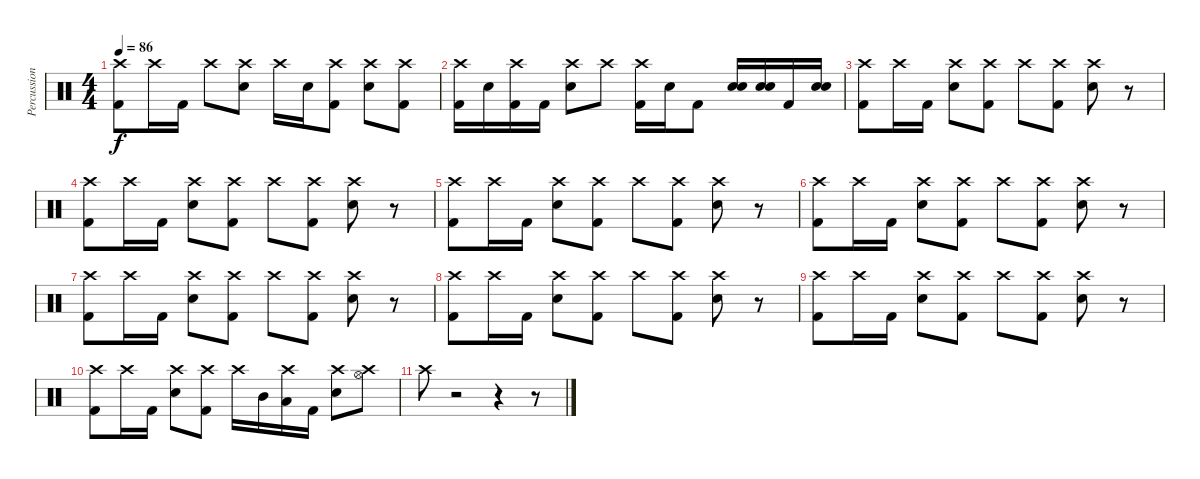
\track ("Percussions" "Percussion") {instrument percussion}
\staff {score}
\articulation defaults
\ts (4 4)
\tempo 86
\clef neutral
\ks c
("Crash high (hit)" "Kick (hit) 2").8{dy f} "Crash high (hit)".16 "Kick (hit) 2".16 "Crash high (hit)".8 ("Crash high (hit)" "Electric Snare (hit)").8 "Crash high (hit)".16 "Electric Snare (hit)".16 ("Crash high (hit)" "Kick (hit) 2").8 ("Crash high (hit)" "Electric Snare (hit)").8 ("Crash high (hit)" "Kick (hit) 2").8 |
("Crash high (hit)" "Kick (hit) 2").16 "Electric Snare (hit)".16 ("Crash high (hit)" "Kick (hit) 2").16 "Kick (hit) 2".16 ("Crash high (hit)" "Electric Snare (hit)").8 "Crash high (hit)".8 ("Crash high (hit)" "Kick (hit) 2").16 "Electric Snare (hit)".16 "Kick (hit) 2".8 ("Electric Snare (hit)" "Electric Snare (hit)").16 ("Electric Snare (hit)" "Electric Snare (hit)").16 "Kick (hit) 2".16 ("Electric Snare (hit)" "Electric Snare (hit)").16 |
("Crash high (hit)" "Kick (hit) 2").8 "Crash high (hit)".16 "Kick (hit) 2".16 ("Crash high (hit)" "Electric Snare (hit)").8 ("Crash high (hit)" "Kick (hit) 2").8 "Crash high (hit)".8 ("Crash high (hit)" "Kick (hit) 2").8 ("Crash high (hit)" "Electric Snare (hit)").8 r.8 |
("Crash high (hit)" "Kick (hit) 2").8 "Crash high (hit)".16 "Kick (hit) 2".16 ("Crash high (hit)" "Electric Snare (hit)").8 ("Crash high (hit)" "Kick (hit) 2").8 "Crash high (hit)".8 ("Crash high (hit)" "Kick (hit) 2").8 ("Crash high (hit)" "Electric Snare (hit)").8 r.8 |
("Crash high (hit)" "Kick (hit) 2").8 "Crash high (hit)".16 "Kick (hit) 2".16 ("Crash high (hit)" "Electric Snare (hit)").8 ("Crash high (hit)" "Kick (hit) 2").8 "Crash high (hit)".8 ("Crash high (hit)" "Kick (hit) 2").8 ("Crash high (hit)" "Electric Snare (hit)").8 r.8 |
("Crash high (hit)" "Kick (hit) 2").8 "Crash high (hit)".16 "Kick (hit) 2".16 ("Crash high (hit)" "Electric Snare (hit)").8 ("Crash high (hit)" "Kick (hit) 2").8 "Crash high (hit)".8 ("Crash high (hit)" "Kick (hit) 2").8 ("Crash high (hit)" "Electric Snare (hit)").8 r.8 |
("Crash high (hit)" "Kick (hit) 2").8 "Crash high (hit)".16 "Kick (hit) 2".16 ("Crash high (hit)" "Electric Snare (hit)").8 ("Crash high (hit)" "Kick (hit) 2").8 "Crash high (hit)".8 ("Crash high (hit)" "Kick (hit) 2").8 ("Crash high (hit)" "Electric Snare (hit)").8 r.8 |
("Crash high (hit)" "Kick (hit) 2").8 "Crash high (hit)".16 "Kick (hit) 2".16 ("Crash high (hit)" "Electric Snare (hit)").8 ("Crash high (hit)" "Kick (hit) 2").8 "Crash high (hit)".8 ("Crash high (hit)" "Kick (hit) 2").8 ("Crash high (hit)" "Electric Snare (hit)").8 r.8 |
("Crash high (hit)" "Kick (hit) 2").8 "Crash high (hit)".16 "Kick (hit) 2".16 ("Crash high (hit)" "Electric Snare (hit)").8 ("Crash high (hit)" "Kick (hit) 2").8 "Crash high (hit)".8 ("Crash high (hit)" "Kick (hit) 2").8 ("Crash high (hit)" "Electric Snare (hit)").8 r.8 |
("Crash high (hit)" "Kick (hit) 2").8 "Crash high (hit)".16 "Kick (hit) 2".16 ("Crash high (hit)" "Electric Snare (hit)").8 ("Crash high (hit)" "Kick (hit) 2").8 "Crash high (hit)".16 "Mid Tom (hit)".16 ("Crash high (hit)" "Low Tom (hit)").16 "Kick (hit) 2".16 ("Crash high (hit)" "Electric Snare (hit)").8 ("Crash high (hit)" "Hi-Hat (open)").8 |
"Crash high (hit)".8 r.2 r.4 r.8
